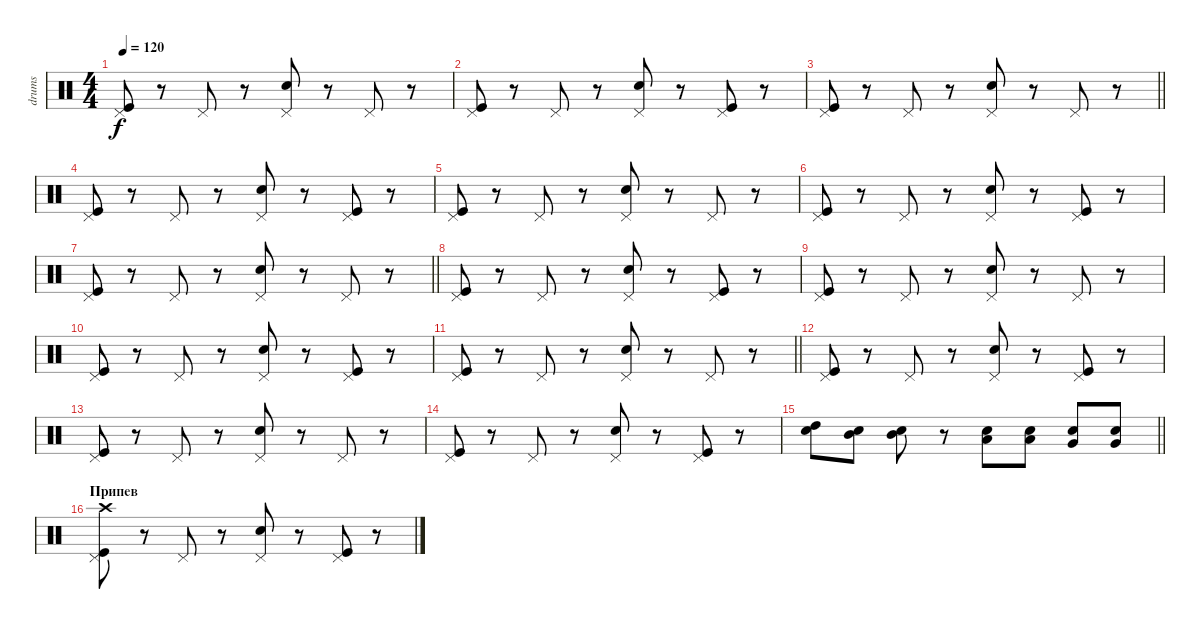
\track ("drums" "drums") {instrument percussion}
\staff {score}
\articulation defaults
\ts (4 4)
\tempo 120
\clef neutral
\ks c
("Kick (hit)" "Pedal Hi-Hat (hit)").8{dy f} r.8 "Pedal Hi-Hat (hit)".8 r.8 ("Snare (hit) 2" "Pedal Hi-Hat (hit)").8 r.8 "Pedal Hi-Hat (hit)".8 r.8 |
("Kick (hit)" "Pedal Hi-Hat (hit)").8 r.8 "Pedal Hi-Hat (hit)".8 r.8 ("Snare (hit) 2" "Pedal Hi-Hat (hit)").8 r.8 ("Kick (hit)" "Pedal Hi-Hat (hit)").8 r.8 |
\barLineRight lightlight
("Kick (hit)" "Pedal Hi-Hat (hit)").8 r.8 "Pedal Hi-Hat (hit)".8 r.8 ("Snare (hit) 2" "Pedal Hi-Hat (hit)").8 r.8 "Pedal Hi-Hat (hit)".8 r.8 |
("Kick (hit)" "Pedal Hi-Hat (hit)").8 r.8 "Pedal Hi-Hat (hit)".8 r.8 ("Snare (hit) 2" "Pedal Hi-Hat (hit)").8 r.8 ("Kick (hit)" "Pedal Hi-Hat (hit)").8 r.8 |
("Kick (hit)" "Pedal Hi-Hat (hit)").8 r.8 "Pedal Hi-Hat (hit)".8 r.8 ("Snare (hit) 2" "Pedal Hi-Hat (hit)").8 r.8 "Pedal Hi-Hat (hit)".8 r.8 |
("Kick (hit)" "Pedal Hi-Hat (hit)").8 r.8 "Pedal Hi-Hat (hit)".8 r.8 ("Snare (hit) 2" "Pedal Hi-Hat (hit)").8 r.8 ("Kick (hit)" "Pedal Hi-Hat (hit)").8 r.8 |
\barLineRight lightlight
("Kick (hit)" "Pedal Hi-Hat (hit)").8 r.8 "Pedal Hi-Hat (hit)".8 r.8 ("Snare (hit) 2" "Pedal Hi-Hat (hit)").8 r.8 "Pedal Hi-Hat (hit)".8 r.8 |
("Kick (hit)" "Pedal Hi-Hat (hit)").8 r.8 "Pedal Hi-Hat (hit)".8 r.8 ("Snare (hit) 2" "Pedal Hi-Hat (hit)").8 r.8 ("Kick (hit)" "Pedal Hi-Hat (hit)").8 r.8 |
("Kick (hit)" "Pedal Hi-Hat (hit)").8 r.8 "Pedal Hi-Hat (hit)".8 r.8 ("Snare (hit) 2" "Pedal Hi-Hat (hit)").8 r.8 "Pedal Hi-Hat (hit)".8 r.8 |
("Kick (hit)" "Pedal Hi-Hat (hit)").8 r.8 "Pedal Hi-Hat (hit)".8 r.8 ("Snare (hit) 2" "Pedal Hi-Hat (hit)").8 r.8 ("Kick (hit)" "Pedal Hi-Hat (hit)").8 r.8 |
\barLineRight lightlight
("Kick (hit)" "Pedal Hi-Hat (hit)").8 r.8 "Pedal Hi-Hat (hit)".8 r.8 ("Snare (hit) 2" "Pedal Hi-Hat (hit)").8 r.8 "Pedal Hi-Hat (hit)".8 r.8 |
("Kick (hit)" "Pedal Hi-Hat (hit)").8 r.8 "Pedal Hi-Hat (hit)".8 r.8 ("Snare (hit) 2" "Pedal Hi-Hat (hit)").8 r.8 ("Kick (hit)" "Pedal Hi-Hat (hit)").8 r.8 |
("Kick (hit)" "Pedal Hi-Hat (hit)").8 r.8 "Pedal Hi-Hat (hit)".8 r.8 ("Snare (hit) 2" "Pedal Hi-Hat (hit)").8 r.8 "Pedal Hi-Hat (hit)".8 r.8 |
("Kick (hit)" "Pedal Hi-Hat (hit)").8 r.8 "Pedal Hi-Hat (hit)".8 r.8 ("Snare (hit) 2" "Pedal Hi-Hat (hit)").8 r.8 ("Kick (hit)" "Pedal Hi-Hat (hit)").8 r.8 |
\barLineRight lightlight
("Snare (hit) 2" "High Tom (hit)").8 ("Snare (hit) 2" "Mid Tom (hit)").8 ("Snare (hit) 2" "Mid Tom (hit)").8 r.8 ("Snare (hit) 2" "Low Tom (hit)").8 ("Low Tom (hit)" "Snare (hit) 2").8 ("Snare (hit) 2" "Very Low Tom (hit)").8 ("Snare (hit) 2" "Very Low Tom (hit)").8 |
\section ("" "Припев")
("Kick (hit)" "Crash high (hit)" "Pedal Hi-Hat (hit)").8 r.8 "Pedal Hi-Hat (hit)".8 r.8 ("Snare (hit) 2" "Pedal Hi-Hat (hit)").8 r.8 ("Kick (hit)" "Pedal Hi-Hat (hit)").8 r.8
